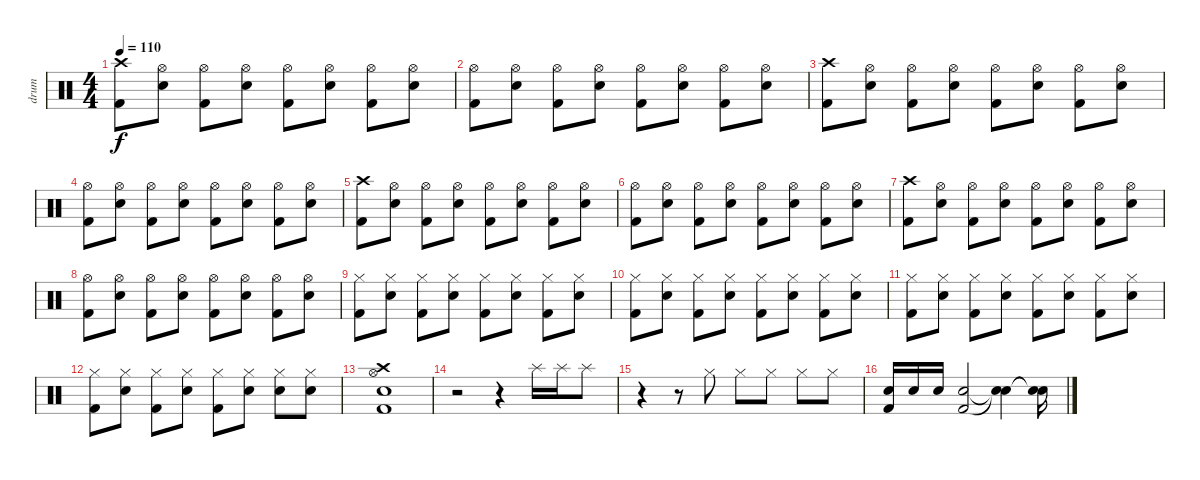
\track ("drum" "drum") {instrument percussion}
\staff {score}
\articulation defaults
\ts (4 4)
\tempo 110
\clef neutral
\ks c
("Crash high (hit)" "Kick (hit) 2").8{dy f} ("Hi-Hat (open)" "Electric Snare (hit)").8 ("Hi-Hat (open)" "Kick (hit) 2").8 ("Hi-Hat (open)" "Electric Snare (hit)").8 ("Hi-Hat (open)" "Kick (hit) 2").8 ("Hi-Hat (open)" "Electric Snare (hit)").8 ("Hi-Hat (open)" "Kick (hit) 2").8 ("Hi-Hat (open)" "Electric Snare (hit)").8 |
("Hi-Hat (open)" "Kick (hit) 2").8 ("Hi-Hat (open)" "Electric Snare (hit)").8 ("Hi-Hat (open)" "Kick (hit) 2").8 ("Hi-Hat (open)" "Electric Snare (hit)").8 ("Hi-Hat (open)" "Kick (hit) 2").8 ("Hi-Hat (open)" "Electric Snare (hit)").8 ("Hi-Hat (open)" "Kick (hit) 2").8 ("Hi-Hat (open)" "Electric Snare (hit)").8 |
("Crash high (hit)" "Kick (hit) 2").8 ("Hi-Hat (open)" "Electric Snare (hit)").8 ("Hi-Hat (open)" "Kick (hit) 2").8 ("Hi-Hat (open)" "Electric Snare (hit)").8 ("Hi-Hat (open)" "Kick (hit) 2").8 ("Hi-Hat (open)" "Electric Snare (hit)").8 ("Hi-Hat (open)" "Kick (hit) 2").8 ("Hi-Hat (open)" "Electric Snare (hit)").8 |
("Hi-Hat (open)" "Kick (hit) 2").8 ("Hi-Hat (open)" "Electric Snare (hit)").8 ("Hi-Hat (open)" "Kick (hit) 2").8 ("Hi-Hat (open)" "Electric Snare (hit)").8 ("Hi-Hat (open)" "Kick (hit) 2").8 ("Hi-Hat (open)" "Electric Snare (hit)").8 ("Hi-Hat (open)" "Kick (hit) 2").8 ("Hi-Hat (open)" "Electric Snare (hit)").8 |
("Crash high (hit)" "Kick (hit) 2").8 ("Hi-Hat (open)" "Electric Snare (hit)").8 ("Hi-Hat (open)" "Kick (hit) 2").8 ("Hi-Hat (open)" "Electric Snare (hit)").8 ("Hi-Hat (open)" "Kick (hit) 2").8 ("Hi-Hat (open)" "Electric Snare (hit)").8 ("Hi-Hat (open)" "Kick (hit) 2").8 ("Hi-Hat (open)" "Electric Snare (hit)").8 |
("Hi-Hat (open)" "Kick (hit) 2").8 ("Hi-Hat (open)" "Electric Snare (hit)").8 ("Hi-Hat (open)" "Kick (hit) 2").8 ("Hi-Hat (open)" "Electric Snare (hit)").8 ("Hi-Hat (open)" "Kick (hit) 2").8 ("Hi-Hat (open)" "Electric Snare (hit)").8 ("Hi-Hat (open)" "Kick (hit) 2").8 ("Hi-Hat (open)" "Electric Snare (hit)").8 |
("Crash high (hit)" "Kick (hit) 2").8 ("Hi-Hat (open)" "Electric Snare (hit)").8 ("Hi-Hat (open)" "Kick (hit) 2").8 ("Hi-Hat (open)" "Electric Snare (hit)").8 ("Hi-Hat (open)" "Kick (hit) 2").8 ("Hi-Hat (open)" "Electric Snare (hit)").8 ("Hi-Hat (open)" "Kick (hit) 2").8 ("Hi-Hat (open)" "Electric Snare (hit)").8 |
("Hi-Hat (open)" "Kick (hit) 2").8 ("Hi-Hat (open)" "Electric Snare (hit)").8 ("Hi-Hat (open)" "Kick (hit) 2").8 ("Hi-Hat (open)" "Electric Snare (hit)").8 ("Hi-Hat (open)" "Kick (hit) 2").8 ("Hi-Hat (open)" "Electric Snare (hit)").8 ("Hi-Hat (open)" "Kick (hit) 2").8 ("Hi-Hat (open)" "Electric Snare (hit)").8 |
("Hi-Hat (closed)" "Kick (hit) 2").8 ("Hi-Hat (closed)" "Electric Snare (hit)").8 ("Hi-Hat (closed)" "Kick (hit) 2").8 ("Hi-Hat (closed)" "Electric Snare (hit)").8 ("Hi-Hat (closed)" "Kick (hit) 2").8 ("Hi-Hat (closed)" "Electric Snare (hit)").8 ("Hi-Hat (closed)" "Kick (hit) 2").8 ("Hi-Hat (closed)" "Electric Snare (hit)").8 |
("Hi-Hat (closed)" "Kick (hit) 2").8 ("Hi-Hat (closed)" "Electric Snare (hit)").8 ("Hi-Hat (closed)" "Kick (hit) 2").8 ("Hi-Hat (closed)" "Electric Snare (hit)").8 ("Hi-Hat (closed)" "Kick (hit) 2").8 ("Hi-Hat (closed)" "Electric Snare (hit)").8 ("Hi-Hat (closed)" "Kick (hit) 2").8 ("Hi-Hat (closed)" "Electric Snare (hit)").8 |
("Hi-Hat (closed)" "Kick (hit) 2").8 ("Hi-Hat (closed)" "Electric Snare (hit)").8 ("Hi-Hat (closed)" "Kick (hit) 2").8 ("Hi-Hat (closed)" "Electric Snare (hit)").8 ("Hi-Hat (closed)" "Kick (hit) 2").8 ("Hi-Hat (closed)" "Electric Snare (hit)").8 ("Hi-Hat (closed)" "Kick (hit) 2").8 ("Hi-Hat (closed)" "Electric Snare (hit)").8 |
("Hi-Hat (closed)" "Kick (hit) 2").8 ("Hi-Hat (closed)" "Electric Snare (hit)").8 ("Hi-Hat (closed)" "Kick (hit) 2").8 ("Hi-Hat (closed)" "Electric Snare (hit)").8 ("Hi-Hat (closed)" "Kick (hit) 2").8 ("Hi-Hat (closed)" "Electric Snare (hit)").8 ("Hi-Hat (closed)" "Electric Snare (hit)").8 ("Hi-Hat (closed)" "Electric Snare (hit)").8 |
("Crash high (hit)" "Hi-Hat (open)" "Electric Snare (hit)" "Kick (hit) 2").1 |
r.2 r.4 "Splash (hit)".16 "Splash (hit)".16 "Splash (hit)".8 |
r.4 r.8 "Hi-Hat (closed)".8 "Hi-Hat (closed)".8 "Hi-Hat (closed)".8 "Hi-Hat (closed)".8 "Hi-Hat (closed)".8 |
("Electric Snare (hit)" "Kick (hit) 2").16 "Electric Snare (hit)".16 "Electric Snare (hit)".16 ("Electric Snare (hit)" "Kick (hit) 2").2 ("Snare (hit)"{t} "Snare (hit)"{t}).4 ("Snare (hit)"{t} "Snare (hit)"{t}).16
